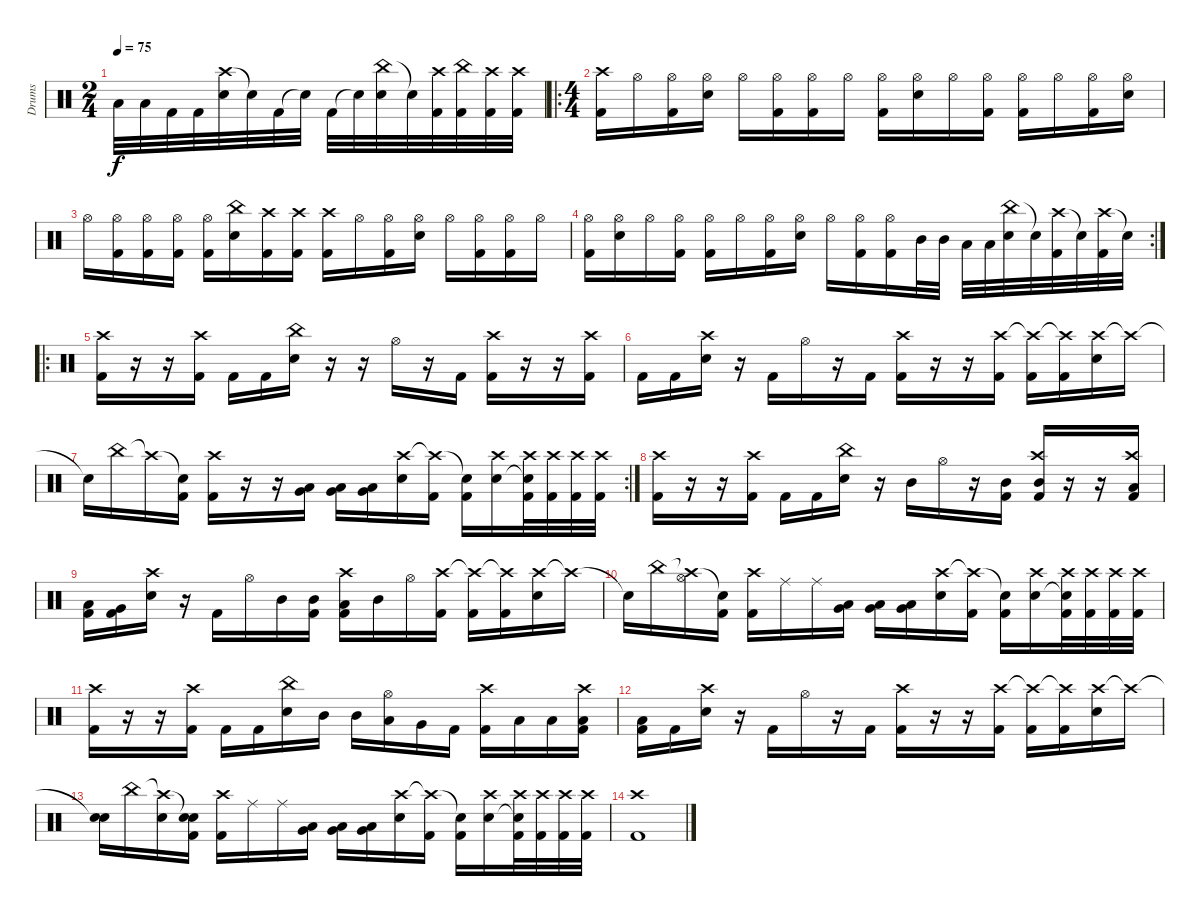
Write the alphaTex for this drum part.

\track ("Drums" "Drums") {instrument percussion}
\staff {score}
\articulation defaults
\ts (2 4)
\tempo 75
\clef neutral
\ks c "Low Floor Tom (hit)".32{dy f} "Low Floor Tom (hit)".32 "Kick (hit) 2".32 "Kick (hit) 2".32
("Crash high (hit)" "Electric Snare (hit)").32 "Snare (hit)"{t}.32 "Kick (hit) 2".32 "Snare (hit)"{t}.32 "Kick (hit) 2".32 "Snare (hit)"{t}.32 ("China (hit)" "Electric Snare (hit)").32 "Snare (hit)"{t}.32 ("Crash high (hit)" "Kick (hit) 2").32 ("China (hit)" "Kick (hit) 2").32 ("Crash high (hit)" "Kick (hit) 2").32 ("Crash high (hit)" "Kick (hit) 2").32 |
\ro
\ts (4 4)
("Crash high (hit)" "Kick (hit) 2").16 "Hi-Hat (open)".16 ("Hi-Hat (open)" "Kick (hit) 2").16 ("Hi-Hat (open)" "Electric Snare (hit)").16 "Hi-Hat (open)".16 ("Hi-Hat (open)" "Kick (hit) 2").16 ("Hi-Hat (open)" "Kick (hit) 2").16 "Hi-Hat (open)".16 ("Hi-Hat (open)" "Kick (hit) 2").16 ("Hi-Hat (open)" "Electric Snare (hit)").16 "Hi-Hat (open)".16 ("Hi-Hat (open)" "Kick (hit) 2").16 ("Hi-Hat (open)" "Kick (hit) 2").16 "Hi-Hat (open)".16 ("Hi-Hat (open)" "Kick (hit) 2").16 ("Hi-Hat (open)" "Electric Snare (hit)").16 |
"Hi-Hat (open)".16 ("Hi-Hat (open)" "Kick (hit) 2").16 ("Hi-Hat (open)" "Kick (hit) 2").16 ("Hi-Hat (open)" "Kick (hit) 2").16 ("Hi-Hat (open)" "Kick (hit) 2").16 ("China (hit)" "Electric Snare (hit)").16 ("Crash high (hit)" "Kick (hit) 2").16 ("Crash high (hit)" "Kick (hit) 2").16 ("Crash high (hit)" "Kick (hit) 2").16 "Hi-Hat (open)".16 ("Hi-Hat (open)" "Kick (hit) 2").16 ("Hi-Hat (open)" "Electric Snare (hit)").16 "Hi-Hat (open)".16 ("Hi-Hat (open)" "Kick (hit) 2").16 ("Hi-Hat (open)" "Kick (hit) 2").16 "Hi-Hat (open)".16 |
\rc 2
("Hi-Hat (open)" "Kick (hit) 2").16 ("Hi-Hat (open)" "Electric Snare (hit)").16 "Hi-Hat (open)".16 ("Hi-Hat (open)" "Kick (hit) 2").16 ("Hi-Hat (open)" "Kick (hit) 2").16 "Hi-Hat (open)".16 ("Hi-Hat (open)" "Kick (hit) 2").16 ("Hi-Hat (open)" "Electric Snare (hit)").16 "Hi-Hat (open)".16 ("Hi-Hat (open)" "Kick (hit) 2").16 ("Hi-Hat (open)" "Kick (hit) 2").16 "Mid Tom (hit)".32 "Mid Tom (hit)".32 "Low Tom (hit)".32 "Low Tom (hit)".32 ("China (hit)" "Electric Snare (hit)").32 "Snare (hit)"{t}.32 ("Crash high (hit)" "Kick (hit) 2").32 "Snare (hit)"{t}.32 ("Crash high (hit)" "Kick (hit) 2").32 "Snare (hit)"{t}.32 |
\ro
("Crash high (hit)" "Kick (hit) 2").16 r.16 r.16 ("Crash high (hit)" "Kick (hit) 2").16 "Kick (hit) 2".16 "Kick (hit) 2".16 ("China (hit)" "Electric Snare (hit)").16 r.16 r.16 "Hi-Hat (open)".16 r.16 "Kick (hit) 2".16 ("Crash high (hit)" "Kick (hit) 2").16 r.16 r.16 ("Crash high (hit)" "Kick (hit) 2").16 |
"Kick (hit) 2".16 "Kick (hit) 2".16 ("Crash high (hit)" "Electric Snare (hit)").16 r.16 "Kick (hit) 2".16 "Hi-Hat (open)".16 r.16 "Kick (hit) 2".16 ("Crash high (hit)" "Kick (hit) 2").16 r.16 r.16 ("Crash high (hit)" "Kick (hit) 2").16 ("Crash high (hit)"{t} "Kick (hit) 2").16 ("Crash high (hit)"{t} "Kick (hit) 2").16 ("Crash high (hit)" "Electric Snare (hit)").16 "Crash high (hit)"{t}.16 |
\rc 2 "Snare (hit)"{t}.16 "China (hit)".16 "Crash high (hit)"{t}.16
("Snare (hit)"{t} "Kick (hit) 2").16 ("Crash high (hit)" "Kick (hit) 2").16 r.16 r.16 ("Low Floor Tom (hit)" "Very Low Tom (hit)").16 ("Low Floor Tom (hit)" "Very Low Tom (hit)").16 ("Low Floor Tom (hit)" "Very Low Tom (hit)").16 ("Crash high (hit)" "Electric Snare (hit)").16 ("Crash high (hit)"{t} "Kick (hit) 2").16 ("Snare (hit)"{t} "Kick (hit) 2").16 ("Crash high (hit)" "Electric Snare (hit)").16 ("Crash high (hit)" "Electric Snare (hit)"{t} "Kick (hit) 2").32 ("Crash high (hit)" "Kick (hit) 2").32 ("Crash high (hit)" "Kick (hit) 2").32 ("Crash high (hit)" "Kick (hit) 2").32 |
("Crash high (hit)" "Kick (hit) 2").16 r.16 r.16 ("Crash high (hit)" "Kick (hit) 2").16 "Kick (hit) 2".16 "Kick (hit) 2".16 ("China (hit)" "Electric Snare (hit)").16 r.16 "Mid Tom (hit)".16 "Hi-Hat (open)".16 r.16 ("Mid Tom (hit)" "Kick (hit) 2").16 ("Crash high (hit)" "Mid Tom (hit)" "Kick (hit) 2").16 r.16 r.16 ("Crash high (hit)" "Low Tom (hit)" "Kick (hit) 2").16 |
("Low Tom (hit)" "Kick (hit) 2").16 ("Very Low Tom (hit)" "Kick (hit) 2").16 ("Crash high (hit)" "Electric Snare (hit)").16 r.16 "Kick (hit) 2".16 "Hi-Hat (open)".16 "Mid Tom (hit)".16 ("Mid Tom (hit)" "Kick (hit) 2").16 ("Crash high (hit)" "Low Tom (hit)" "Kick (hit) 2").16 "Mid Tom (hit)".16 "Hi-Hat (open)".16 ("Crash high (hit)" "Kick (hit) 2").16 ("Crash high (hit)"{t} "Kick (hit) 2").16 ("Crash high (hit)"{t} "Kick (hit) 2").16 ("Crash high (hit)" "Electric Snare (hit)").16 "Crash high (hit)"{t}.16 |
"Snare (hit)"{t}.16 "China (hit)".16 ("Crash high (hit)"{t} "Hi-Hat (open)").16 ("Snare (hit)"{t} "Kick (hit) 2").16 ("Crash high (hit)" "Kick (hit) 2").16 "Ride (middle)".16 "Ride (middle)".16 ("Low Floor Tom (hit)" "Very Low Tom (hit)").16 ("Low Floor Tom (hit)" "Very Low Tom (hit)").16 ("Low Floor Tom (hit)" "Very Low Tom (hit)").16 ("Crash high (hit)" "Electric Snare (hit)").16 ("Crash high (hit)"{t} "Kick (hit) 2").16 ("Snare (hit)"{t} "Kick (hit) 2").16 ("Crash high (hit)" "Electric Snare (hit)").16 ("Crash high (hit)" "Electric Snare (hit)"{t} "Kick (hit) 2").32 ("Crash high (hit)" "Kick (hit) 2").32 ("Crash high (hit)" "Kick (hit) 2").32 ("Crash high (hit)" "Kick (hit) 2").32 |
("Crash high (hit)" "Kick (hit) 2").16 r.16 r.16 ("Crash high (hit)" "Kick (hit) 2").16 "Kick (hit) 2".16 "Kick (hit) 2".16 ("China (hit)" "Electric Snare (hit)").16 "Mid Tom (hit)".16 "Mid Tom (hit)".16 ("Hi-Hat (open)" "Low Tom (hit)").16 "Very Low Tom (hit)".16 "Kick (hit) 2".16 ("Crash high (hit)" "Kick (hit) 2").16 "Low Floor Tom (hit)".16 "Low Floor Tom (hit)".16 ("Crash high (hit)" "Low Floor Tom (hit)" "Kick (hit) 2").16 |
("Low Floor Tom (hit)" "Kick (hit) 2").16 "Kick (hit) 2".16 ("Crash high (hit)" "Electric Snare (hit)").16 r.16 "Kick (hit) 2".16 "Hi-Hat (open)".16 r.16 "Kick (hit) 2".16 ("Crash high (hit)" "Kick (hit) 2").16 r.16 r.16 ("Crash high (hit)" "Kick (hit) 2").16 ("Crash high (hit)"{t} "Kick (hit) 2").16 ("Crash high (hit)"{t} "Kick (hit) 2").16 ("Crash high (hit)" "Electric Snare (hit)").16 "Crash high (hit)"{t}.16 |
("Snare (hit)"{t} "Electric Snare (hit)").16 "China (hit)".16 ("Crash high (hit)"{t} "Electric Snare (hit)").16 ("Snare (hit)"{t} "Electric Snare (hit)" "Kick (hit) 2").16 ("Crash high (hit)" "Kick (hit) 2").16 "Ride (middle)".16 "Ride (middle)".16 ("Low Floor Tom (hit)" "Very Low Tom (hit)").16 ("Low Floor Tom (hit)" "Very Low Tom (hit)").16 ("Low Floor Tom (hit)" "Very Low Tom (hit)").16 ("Crash high (hit)" "Electric Snare (hit)").16 ("Crash high (hit)"{t} "Kick (hit) 2").16 ("Snare (hit)"{t} "Kick (hit) 2").16 ("Crash high (hit)" "Electric Snare (hit)").16 ("Crash high (hit)" "Electric Snare (hit)"{t} "Kick (hit) 2").32 ("Crash high (hit)" "Kick (hit) 2").32 ("Crash high (hit)" "Kick (hit) 2").32 ("Crash high (hit)" "Kick (hit) 2").32 |
("Kick (hit) 2" "Crash high (hit)").1
